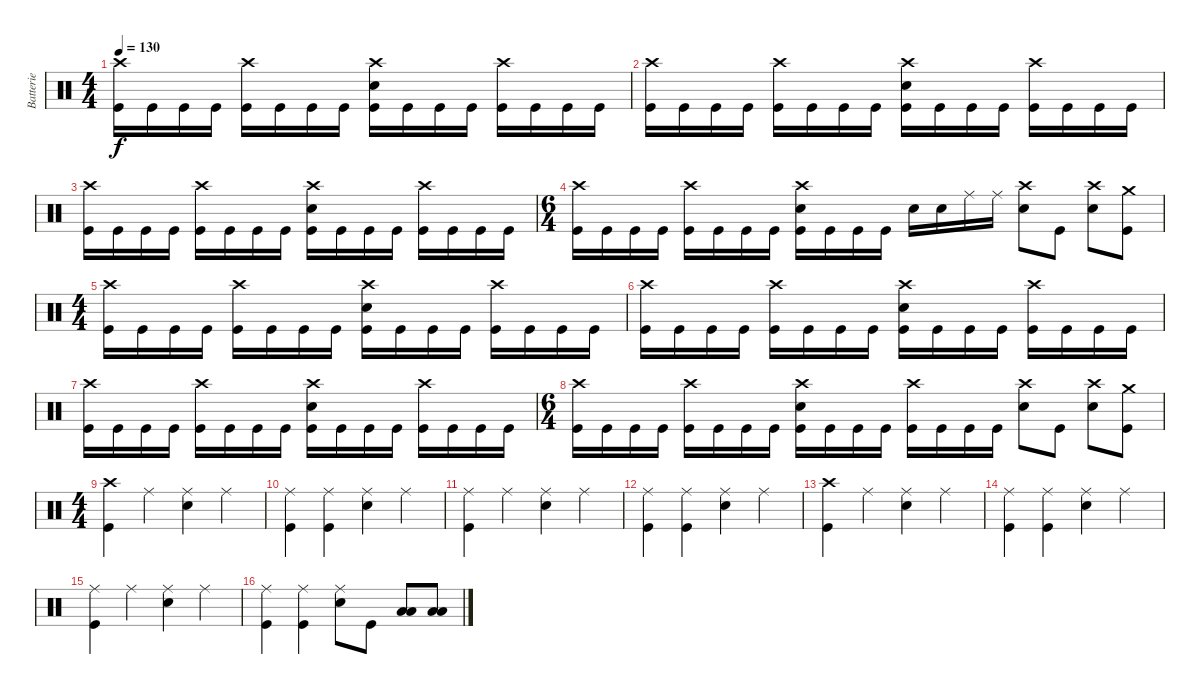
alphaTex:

\track ("Batterie" "Batterie") {instrument percussion}
\staff {score}
\articulation defaults
\ts (4 4)
\tempo 130
\clef neutral
\ks c
("Crash high (hit)" "Kick (hit)").16{dy f} "Kick (hit)".16 "Kick (hit)".16 "Kick (hit)".16 ("Crash high (hit)" "Kick (hit)").16 "Kick (hit)".16 "Kick (hit)".16 "Kick (hit)".16 ("Crash high (hit)" "Electric Snare (hit)" "Kick (hit)").16 "Kick (hit)".16 "Kick (hit)".16 "Kick (hit)".16 ("Crash high (hit)" "Kick (hit)").16 "Kick (hit)".16 "Kick (hit)".16 "Kick (hit)".16 |
("Crash high (hit)" "Kick (hit)").16 "Kick (hit)".16 "Kick (hit)".16 "Kick (hit)".16 ("Crash high (hit)" "Kick (hit)").16 "Kick (hit)".16 "Kick (hit)".16 "Kick (hit)".16 ("Crash high (hit)" "Electric Snare (hit)" "Kick (hit)").16 "Kick (hit)".16 "Kick (hit)".16 "Kick (hit)".16 ("Crash high (hit)" "Kick (hit)").16 "Kick (hit)".16 "Kick (hit)".16 "Kick (hit)".16 |
("Crash high (hit)" "Kick (hit)").16 "Kick (hit)".16 "Kick (hit)".16 "Kick (hit)".16 ("Crash high (hit)" "Kick (hit)").16 "Kick (hit)".16 "Kick (hit)".16 "Kick (hit)".16 ("Crash high (hit)" "Electric Snare (hit)" "Kick (hit)").16 "Kick (hit)".16 "Kick (hit)".16 "Kick (hit)".16 ("Crash high (hit)" "Kick (hit)").16 "Kick (hit)".16 "Kick (hit)".16 "Kick (hit)".16 |
\ts (6 4)
("Crash high (hit)" "Kick (hit)").16 "Kick (hit)".16 "Kick (hit)".16 "Kick (hit)".16 ("Crash high (hit)" "Kick (hit)").16 "Kick (hit)".16 "Kick (hit)".16 "Kick (hit)".16 ("Crash high (hit)" "Electric Snare (hit)" "Kick (hit)").16 "Kick (hit)".16 "Kick (hit)".16 "Kick (hit)".16 "Electric Snare (hit)".16 "Electric Snare (hit)".16 "Ride (middle)".16 "Ride (middle)".16 ("Crash high (hit)" "Electric Snare (hit)").8 "Kick (hit)".8 ("Crash high (hit)" "Electric Snare (hit)").8 ("Crash medium (hit)" "Kick (hit)").8 |
\ts (4 4)
("Crash high (hit)" "Kick (hit)").16 "Kick (hit)".16 "Kick (hit)".16 "Kick (hit)".16 ("Crash high (hit)" "Kick (hit)").16 "Kick (hit)".16 "Kick (hit)".16 "Kick (hit)".16 ("Crash high (hit)" "Electric Snare (hit)" "Kick (hit)").16 "Kick (hit)".16 "Kick (hit)".16 "Kick (hit)".16 ("Crash high (hit)" "Kick (hit)").16 "Kick (hit)".16 "Kick (hit)".16 "Kick (hit)".16 |
("Crash high (hit)" "Kick (hit)").16 "Kick (hit)".16 "Kick (hit)".16 "Kick (hit)".16 ("Crash high (hit)" "Kick (hit)").16 "Kick (hit)".16 "Kick (hit)".16 "Kick (hit)".16 ("Crash high (hit)" "Electric Snare (hit)" "Kick (hit)").16 "Kick (hit)".16 "Kick (hit)".16 "Kick (hit)".16 ("Crash high (hit)" "Kick (hit)").16 "Kick (hit)".16 "Kick (hit)".16 "Kick (hit)".16 |
("Crash high (hit)" "Kick (hit)").16 "Kick (hit)".16 "Kick (hit)".16 "Kick (hit)".16 ("Crash high (hit)" "Kick (hit)").16 "Kick (hit)".16 "Kick (hit)".16 "Kick (hit)".16 ("Crash high (hit)" "Electric Snare (hit)" "Kick (hit)").16 "Kick (hit)".16 "Kick (hit)".16 "Kick (hit)".16 ("Crash high (hit)" "Kick (hit)").16 "Kick (hit)".16 "Kick (hit)".16 "Kick (hit)".16 |
\ts (6 4)
("Crash high (hit)" "Kick (hit)").16 "Kick (hit)".16 "Kick (hit)".16 "Kick (hit)".16 ("Crash high (hit)" "Kick (hit)").16 "Kick (hit)".16 "Kick (hit)".16 "Kick (hit)".16 ("Crash high (hit)" "Electric Snare (hit)" "Kick (hit)").16 "Kick (hit)".16 "Kick (hit)".16 "Kick (hit)".16 ("Crash high (hit)" "Kick (hit)").16 "Kick (hit)".16 "Kick (hit)".16 "Kick (hit)".16 ("Crash high (hit)" "Electric Snare (hit)").8 "Kick (hit)".8 ("Crash high (hit)" "Electric Snare (hit)").8 ("Crash medium (hit)" "Kick (hit)").8 |
\ts (4 4)
("Crash high (hit)" "Kick (hit)").4 "Ride (middle)".4 ("Ride (middle)" "Electric Snare (hit)").4 "Ride (middle)".4 |
("Ride (middle)" "Kick (hit)").4 ("Ride (middle)" "Kick (hit)").4 ("Ride (middle)" "Electric Snare (hit)").4 "Ride (middle)".4 |
("Ride (middle)" "Kick (hit)").4 "Ride (middle)".4 ("Ride (middle)" "Electric Snare (hit)").4 "Ride (middle)".4 |
("Ride (middle)" "Kick (hit)").4 ("Ride (middle)" "Kick (hit)").4 ("Ride (middle)" "Electric Snare (hit)").4 "Ride (middle)".4 |
("Crash high (hit)" "Kick (hit)").4 "Ride (middle)".4 ("Ride (middle)" "Electric Snare (hit)").4 "Ride (middle)".4 |
("Ride (middle)" "Kick (hit)").4 ("Ride (middle)" "Kick (hit)").4 ("Ride (middle)" "Electric Snare (hit)").4 "Ride (middle)".4 |
("Ride (middle)" "Kick (hit)").4 "Ride (middle)".4 ("Ride (middle)" "Electric Snare (hit)").4 "Ride (middle)".4 |
("Ride (middle)" "Kick (hit)").4 ("Ride (middle)" "Kick (hit)").4 ("Ride (middle)" "Electric Snare (hit)").8 "Kick (hit)".8 ("Low Tom (hit)" "Low Floor Tom (hit)").8 ("Low Tom (hit)" "Low Floor Tom (hit)").8
